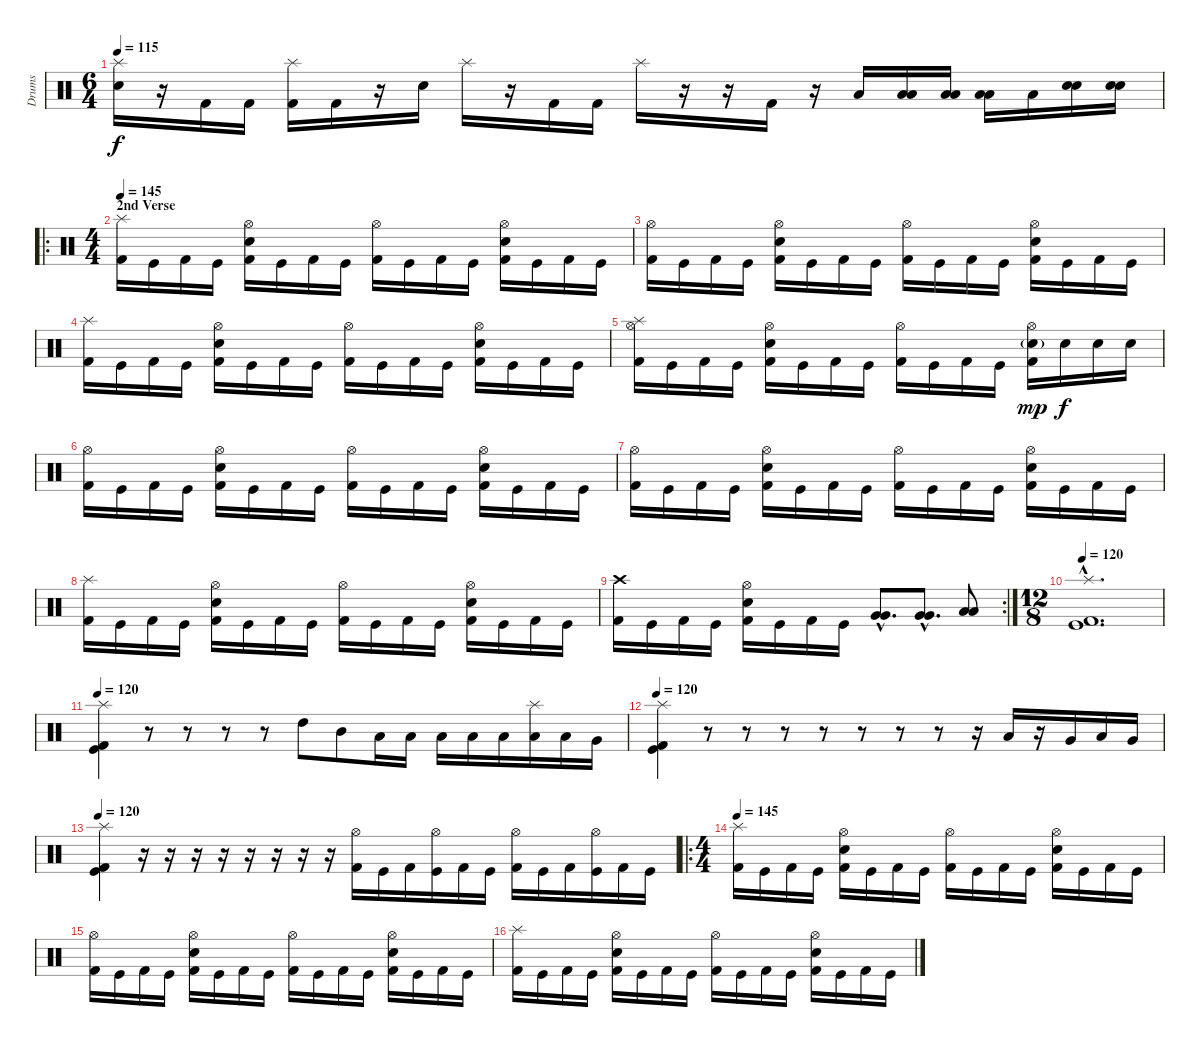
\track ("Drums" "Drums") {instrument percussion}
\staff {score}
\articulation defaults
\ts (6 4)
\tempo 115
\clef neutral
\ks c
("Electric Snare (hit)" "Splash (hit)").16{dy f} r.16 "Kick (hit) 2".16 "Kick (hit) 2".16 ("Kick (hit) 2" "Splash (hit)").16 "Kick (hit) 2".16 r.16 "Electric Snare (hit)".16 "Splash (hit)".16 r.16 "Kick (hit) 2".16 "Kick (hit) 2".16 "Splash (hit)".16 r.16 r.16 "Kick (hit) 2".16 r.16 "Low Tom (hit)".16 ("Low Floor Tom (hit)" "Low Floor Tom (hit)").16 ("Low Floor Tom (hit)" "Low Floor Tom (hit)").16 ("Low Floor Tom (hit)" "Low Floor Tom (hit)").16 "Low Tom (hit)".16 ("Electric Snare (hit)" "Electric Snare (hit)").16 ("Electric Snare (hit)" "Electric Snare (hit)").16 |
\ro
\ts (4 4)
\section ("" "2nd Verse")
\tempo 145
("Kick (hit) 2" "Splash (hit)").16 "Kick (hit)".16 "Kick (hit) 2".16 "Kick (hit)".16 ("Kick (hit) 2" "Electric Snare (hit)" "Hi-Hat (open)").16 "Kick (hit)".16 "Kick (hit) 2".16 "Kick (hit)".16 ("Kick (hit) 2" "Hi-Hat (open)").16 "Kick (hit)".16 "Kick (hit) 2".16 "Kick (hit)".16 ("Kick (hit) 2" "Electric Snare (hit)" "Hi-Hat (open)").16 "Kick (hit)".16 "Kick (hit) 2".16 "Kick (hit)".16 |
("Kick (hit) 2" "Hi-Hat (open)").16 "Kick (hit)".16 "Kick (hit) 2".16 "Kick (hit)".16 ("Kick (hit) 2" "Electric Snare (hit)" "Hi-Hat (open)").16 "Kick (hit)".16 "Kick (hit) 2".16 "Kick (hit)".16 ("Kick (hit) 2" "Hi-Hat (open)").16 "Kick (hit)".16 "Kick (hit) 2".16 "Kick (hit)".16 ("Kick (hit) 2" "Electric Snare (hit)" "Hi-Hat (open)").16 "Kick (hit)".16 "Kick (hit) 2".16 "Kick (hit)".16 |
("Kick (hit) 2" "Splash (hit)").16 "Kick (hit)".16 "Kick (hit) 2".16 "Kick (hit)".16 ("Kick (hit) 2" "Electric Snare (hit)" "Hi-Hat (open)").16 "Kick (hit)".16 "Kick (hit) 2".16 "Kick (hit)".16 ("Kick (hit) 2" "Hi-Hat (open)").16 "Kick (hit)".16 "Kick (hit) 2".16 "Kick (hit)".16 ("Kick (hit) 2" "Electric Snare (hit)" "Hi-Hat (open)").16 "Kick (hit)".16 "Kick (hit) 2".16 "Kick (hit)".16 |
("Kick (hit) 2" "Splash (hit)" "Hi-Hat (open)").16 "Kick (hit)".16 "Kick (hit) 2".16 "Kick (hit)".16 ("Kick (hit) 2" "Electric Snare (hit)" "Hi-Hat (open)").16 "Kick (hit)".16 "Kick (hit) 2".16 "Kick (hit)".16 ("Kick (hit) 2" "Hi-Hat (open)").16 "Kick (hit)".16 "Kick (hit) 2".16 "Kick (hit)".16 ("Kick (hit) 2" "Electric Snare (hit)"{g} "Hi-Hat (open)").16{dy mp} "Electric Snare (hit)".16{dy f} "Electric Snare (hit)".16 "Electric Snare (hit)".16 |
("Kick (hit) 2" "Hi-Hat (open)").16 "Kick (hit)".16 "Kick (hit) 2".16 "Kick (hit)".16 ("Kick (hit) 2" "Electric Snare (hit)" "Hi-Hat (open)").16 "Kick (hit)".16 "Kick (hit) 2".16 "Kick (hit)".16 ("Kick (hit) 2" "Hi-Hat (open)").16 "Kick (hit)".16 "Kick (hit) 2".16 "Kick (hit)".16 ("Kick (hit) 2" "Electric Snare (hit)" "Hi-Hat (open)").16 "Kick (hit)".16 "Kick (hit) 2".16 "Kick (hit)".16 |
("Kick (hit) 2" "Hi-Hat (open)").16 "Kick (hit)".16 "Kick (hit) 2".16 "Kick (hit)".16 ("Kick (hit) 2" "Electric Snare (hit)" "Hi-Hat (open)").16 "Kick (hit)".16 "Kick (hit) 2".16 "Kick (hit)".16 ("Kick (hit) 2" "Hi-Hat (open)").16 "Kick (hit)".16 "Kick (hit) 2".16 "Kick (hit)".16 ("Kick (hit) 2" "Electric Snare (hit)" "Hi-Hat (open)").16 "Kick (hit)".16 "Kick (hit) 2".16 "Kick (hit)".16 |
("Kick (hit) 2" "Splash (hit)").16 "Kick (hit)".16 "Kick (hit) 2".16 "Kick (hit)".16 ("Kick (hit) 2" "Electric Snare (hit)" "Hi-Hat (open)").16 "Kick (hit)".16 "Kick (hit) 2".16 "Kick (hit)".16 ("Kick (hit) 2" "Hi-Hat (open)").16 "Kick (hit)".16 "Kick (hit) 2".16 "Kick (hit)".16 ("Kick (hit) 2" "Electric Snare (hit)" "Hi-Hat (open)").16 "Kick (hit)".16 "Kick (hit) 2".16 "Kick (hit)".16 |
\rc 2
("Kick (hit) 2" "Crash high (hit)").16 "Kick (hit)".16 "Kick (hit) 2".16 "Kick (hit)".16 ("Kick (hit) 2" "Electric Snare (hit)" "Hi-Hat (open)").16 "Kick (hit)".16 "Kick (hit) 2".16 "Kick (hit)".16 ("Very Low Tom (hit)"{hac} "Very Low Tom (hit)"{hac}).8{d} ("Very Low Tom (hit)"{hac} "Very Low Tom (hit)"{hac}).8{d} ("Low Tom (hit)" "Low Tom (hit)").8 |
\ts (12 8)
\tempo 120
("Kick (hit) 2"{hac} "Kick (hit)"{hac} "Splash (hit)"{hac}).1{d} |
\tempo 120
("Kick (hit) 2" "Kick (hit)" "Splash (hit)").4 r.8 r.8 r.8 r.8 "High Tom (hit)".8 "Mid Tom (hit)".8 "Low Tom (hit)".16 "Low Tom (hit)".16 "Low Tom (hit)".16 "Low Tom (hit)".16 "Low Tom (hit)".16 ("Low Tom (hit)" "Splash (hit)").16 "Low Tom (hit)".16 "Very Low Tom (hit)".16 |
\tempo 120
("Kick (hit) 2" "Kick (hit)" "Splash (hit)").4 r.8 r.8 r.8 r.8 r.8 r.8 r.8 r.16 "Low Tom (hit)".16 r.16 "Very Low Tom (hit)".16 "Low Tom (hit)".16 "Very Low Tom (hit)".16 |
\tempo 120
("Kick (hit) 2" "Kick (hit)" "Splash (hit)").4 r.16 r.16 r.16 r.16 r.16 r.16 r.16 r.16 ("Kick (hit) 2" "Hi-Hat (open)").16 "Kick (hit)".16 "Kick (hit) 2".16 ("Kick (hit)" "Hi-Hat (open)").16 "Kick (hit) 2".16 "Kick (hit)".16 ("Kick (hit) 2" "Hi-Hat (open)").16 "Kick (hit)".16 "Kick (hit) 2".16 ("Kick (hit)" "Hi-Hat (open)").16 "Kick (hit) 2".16 "Kick (hit)".16 |
\ro
\ts (4 4)
\tempo 145
("Kick (hit) 2" "Splash (hit)").16 "Kick (hit)".16 "Kick (hit) 2".16 "Kick (hit)".16 ("Kick (hit) 2" "Electric Snare (hit)" "Hi-Hat (open)").16 "Kick (hit)".16 "Kick (hit) 2".16 "Kick (hit)".16 ("Kick (hit) 2" "Hi-Hat (open)").16 "Kick (hit)".16 "Kick (hit) 2".16 "Kick (hit)".16 ("Kick (hit) 2" "Electric Snare (hit)" "Hi-Hat (open)").16 "Kick (hit)".16 "Kick (hit) 2".16 "Kick (hit)".16 |
("Kick (hit) 2" "Hi-Hat (open)").16 "Kick (hit)".16 "Kick (hit) 2".16 "Kick (hit)".16 ("Kick (hit) 2" "Electric Snare (hit)" "Hi-Hat (open)").16 "Kick (hit)".16 "Kick (hit) 2".16 "Kick (hit)".16 ("Kick (hit) 2" "Hi-Hat (open)").16 "Kick (hit)".16 "Kick (hit) 2".16 "Kick (hit)".16 ("Kick (hit) 2" "Electric Snare (hit)" "Hi-Hat (open)").16 "Kick (hit)".16 "Kick (hit) 2".16 "Kick (hit)".16 |
("Kick (hit) 2" "Splash (hit)").16 "Kick (hit)".16 "Kick (hit) 2".16 "Kick (hit)".16 ("Kick (hit) 2" "Electric Snare (hit)" "Hi-Hat (open)").16 "Kick (hit)".16 "Kick (hit) 2".16 "Kick (hit)".16 ("Kick (hit) 2" "Hi-Hat (open)").16 "Kick (hit)".16 "Kick (hit) 2".16 "Kick (hit)".16 ("Kick (hit) 2" "Electric Snare (hit)" "Hi-Hat (open)").16 "Kick (hit)".16 "Kick (hit) 2".16 "Kick (hit)".16
